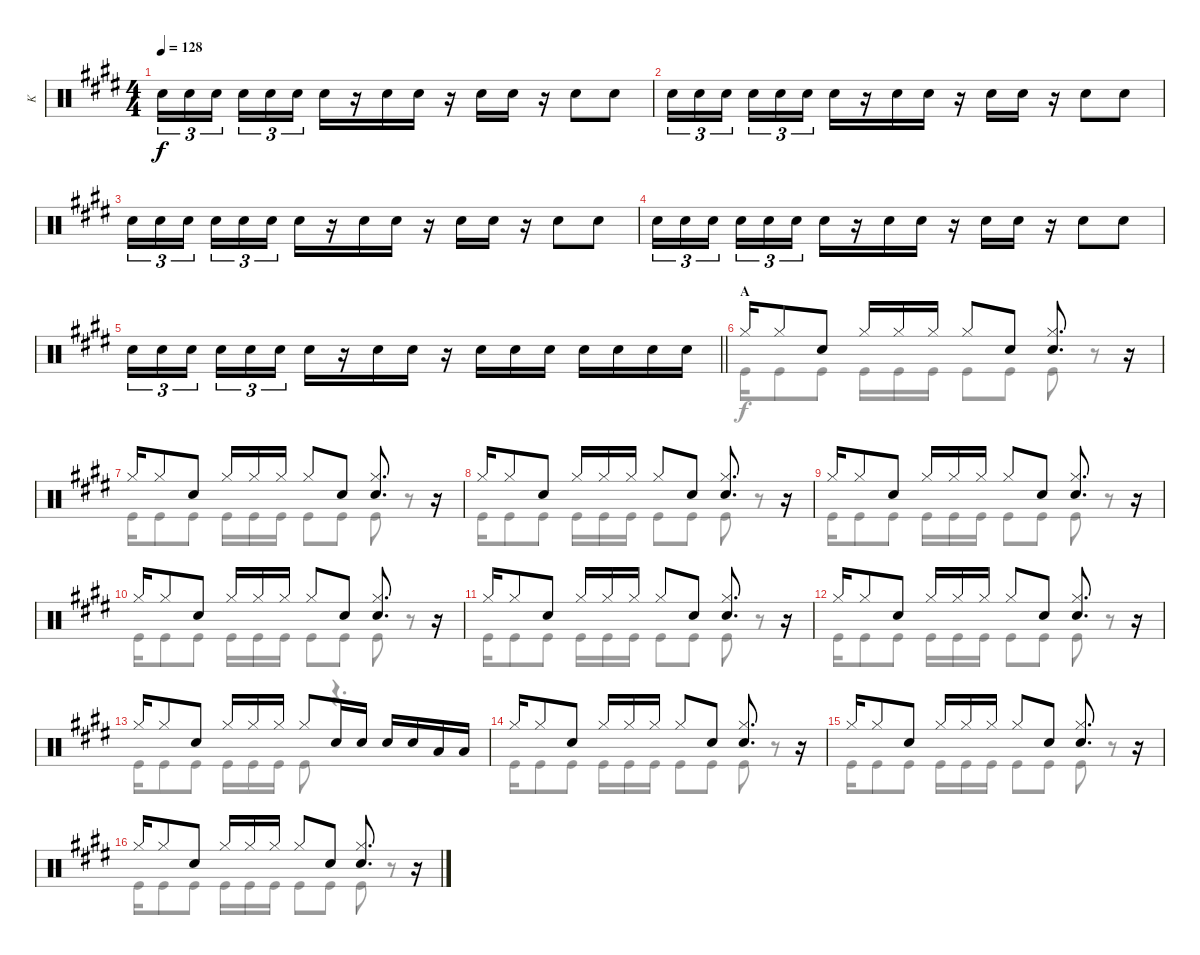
\track ("K" "K") {instrument percussion}
\staff {score}
\articulation defaults
\voice
\ts (4 4)
\tempo 128
\clef neutral
\ks e "Snare (hit) 2".16{tu (3 2) dy f} "Snare (hit) 2".16{tu (3 2)} "Snare (hit) 2".16{tu (3 2) beam splitsecondary} "Snare (hit) 2".16{tu (3 2)} "Snare (hit) 2".16{tu (3 2)} "Snare (hit) 2".16{tu (3 2)} "Snare (hit) 2".16
r.16 "Snare (hit) 2".16 "Snare (hit) 2".16 r.16 "Snare (hit) 2".16 "Snare (hit) 2".16 r.16 "Snare (hit) 2".8 "Snare (hit) 2".8 |
"Snare (hit) 2".16{tu (3 2)} "Snare (hit) 2".16{tu (3 2)} "Snare (hit) 2".16{tu (3 2) beam splitsecondary} "Snare (hit) 2".16{tu (3 2)} "Snare (hit) 2".16{tu (3 2)} "Snare (hit) 2".16{tu (3 2)} "Snare (hit) 2".16 r.16 "Snare (hit) 2".16 "Snare (hit) 2".16 r.16 "Snare (hit) 2".16 "Snare (hit) 2".16 r.16 "Snare (hit) 2".8 "Snare (hit) 2".8 |
"Snare (hit) 2".16{tu (3 2)} "Snare (hit) 2".16{tu (3 2)} "Snare (hit) 2".16{tu (3 2) beam splitsecondary} "Snare (hit) 2".16{tu (3 2)} "Snare (hit) 2".16{tu (3 2)} "Snare (hit) 2".16{tu (3 2)} "Snare (hit) 2".16 r.16 "Snare (hit) 2".16 "Snare (hit) 2".16 r.16 "Snare (hit) 2".16 "Snare (hit) 2".16 r.16 "Snare (hit) 2".8 "Snare (hit) 2".8 |
"Snare (hit) 2".16{tu (3 2)} "Snare (hit) 2".16{tu (3 2)} "Snare (hit) 2".16{tu (3 2) beam splitsecondary} "Snare (hit) 2".16{tu (3 2)} "Snare (hit) 2".16{tu (3 2)} "Snare (hit) 2".16{tu (3 2)} "Snare (hit) 2".16 r.16 "Snare (hit) 2".16 "Snare (hit) 2".16 r.16 "Snare (hit) 2".16 "Snare (hit) 2".16 r.16 "Snare (hit) 2".8 "Snare (hit) 2".8 |
\barLineRight lightlight "Snare (hit) 2".16{tu (3 2)} "Snare (hit) 2".16{tu (3 2)} "Snare (hit) 2".16{tu (3 2) beam splitsecondary} "Snare (hit) 2".16{tu (3 2)} "Snare (hit) 2".16{tu (3 2)} "Snare (hit) 2".16{tu (3 2)} "Snare (hit) 2".16
r.16 "Snare (hit) 2".16 "Snare (hit) 2".16 r.16 "Snare (hit) 2".16 "Snare (hit) 2".16 "Snare (hit) 2".16 "Snare (hit) 2".16 "Snare (hit) 2".16 "Snare (hit) 2".16 "Snare (hit) 2".16 |
\section ("" "A")
"Hi-Hat (closed)".16 "Hi-Hat (closed)".8 "Snare (hit) 2".8 "Hi-Hat (closed)".16 "Hi-Hat (closed)".16 "Hi-Hat (closed)".16 "Hi-Hat (closed)".8 "Snare (hit) 2".8 ("Hi-Hat (closed)" "Snare (hit) 2").8{d} r.16 |
"Hi-Hat (closed)".16 "Hi-Hat (closed)".8 "Snare (hit) 2".8 "Hi-Hat (closed)".16 "Hi-Hat (closed)".16 "Hi-Hat (closed)".16 "Hi-Hat (closed)".8 "Snare (hit) 2".8 ("Hi-Hat (closed)" "Snare (hit) 2").8{d} r.16 |
"Hi-Hat (closed)".16 "Hi-Hat (closed)".8 "Snare (hit) 2".8 "Hi-Hat (closed)".16 "Hi-Hat (closed)".16 "Hi-Hat (closed)".16 "Hi-Hat (closed)".8 "Snare (hit) 2".8 ("Hi-Hat (closed)" "Snare (hit) 2").8{d} r.16 |
"Hi-Hat (closed)".16 "Hi-Hat (closed)".8 "Snare (hit) 2".8 "Hi-Hat (closed)".16 "Hi-Hat (closed)".16 "Hi-Hat (closed)".16 "Hi-Hat (closed)".8 "Snare (hit) 2".8 ("Hi-Hat (closed)" "Snare (hit) 2").8{d} r.16 |
"Hi-Hat (closed)".16 "Hi-Hat (closed)".8 "Snare (hit) 2".8 "Hi-Hat (closed)".16 "Hi-Hat (closed)".16 "Hi-Hat (closed)".16 "Hi-Hat (closed)".8 "Snare (hit) 2".8 ("Hi-Hat (closed)" "Snare (hit) 2").8{d} r.16 |
"Hi-Hat (closed)".16 "Hi-Hat (closed)".8 "Snare (hit) 2".8 "Hi-Hat (closed)".16 "Hi-Hat (closed)".16 "Hi-Hat (closed)".16 "Hi-Hat (closed)".8 "Snare (hit) 2".8 ("Hi-Hat (closed)" "Snare (hit) 2").8{d} r.16 |
"Hi-Hat (closed)".16 "Hi-Hat (closed)".8 "Snare (hit) 2".8 "Hi-Hat (closed)".16 "Hi-Hat (closed)".16 "Hi-Hat (closed)".16 "Hi-Hat (closed)".8 "Snare (hit) 2".8 ("Hi-Hat (closed)" "Snare (hit) 2").8{d} r.16 |
"Hi-Hat (closed)".16 "Hi-Hat (closed)".8 "Snare (hit) 2".8 "Hi-Hat (closed)".16 "Hi-Hat (closed)".16 "Hi-Hat (closed)".16 "Hi-Hat (closed)".8 "Snare (hit) 2".16 "Snare (hit) 2".16 "Snare (hit) 2".16 "Snare (hit) 2".16 "Low Tom (hit)".16 "Low Tom (hit)".16 |
"Hi-Hat (closed)".16 "Hi-Hat (closed)".8 "Snare (hit) 2".8 "Hi-Hat (closed)".16 "Hi-Hat (closed)".16 "Hi-Hat (closed)".16 "Hi-Hat (closed)".8 "Snare (hit) 2".8 ("Hi-Hat (closed)" "Snare (hit) 2").8{d} r.16 |
"Hi-Hat (closed)".16 "Hi-Hat (closed)".8 "Snare (hit) 2".8 "Hi-Hat (closed)".16 "Hi-Hat (closed)".16 "Hi-Hat (closed)".16 "Hi-Hat (closed)".8 "Snare (hit) 2".8 ("Hi-Hat (closed)" "Snare (hit) 2").8{d} r.16 |
"Hi-Hat (closed)".16 "Hi-Hat (closed)".8 "Snare (hit) 2".8 "Hi-Hat (closed)".16 "Hi-Hat (closed)".16 "Hi-Hat (closed)".16 "Hi-Hat (closed)".8 "Snare (hit) 2".8 ("Hi-Hat (closed)" "Snare (hit) 2").8{d} r.16
\voice
\clef neutral
\ottava regular
\simile none
\ks e
|
|
|
|
\barLineRight lightlight
|
"Kick (hit)".16 "Kick (hit)".8 "Kick (hit)".8 "Kick (hit)".16 "Kick (hit)".16 "Kick (hit)".16 "Kick (hit)".8 "Kick (hit)".8 "Kick (hit)".8 r.8 |
"Kick (hit)".16 "Kick (hit)".8 "Kick (hit)".8 "Kick (hit)".16 "Kick (hit)".16 "Kick (hit)".16 "Kick (hit)".8 "Kick (hit)".8 "Kick (hit)".8 r.8 |
"Kick (hit)".16 "Kick (hit)".8 "Kick (hit)".8 "Kick (hit)".16 "Kick (hit)".16 "Kick (hit)".16 "Kick (hit)".8 "Kick (hit)".8 "Kick (hit)".8 r.8 |
"Kick (hit)".16 "Kick (hit)".8 "Kick (hit)".8 "Kick (hit)".16 "Kick (hit)".16 "Kick (hit)".16 "Kick (hit)".8 "Kick (hit)".8 "Kick (hit)".8 r.8 |
"Kick (hit)".16 "Kick (hit)".8 "Kick (hit)".8 "Kick (hit)".16 "Kick (hit)".16 "Kick (hit)".16 "Kick (hit)".8 "Kick (hit)".8 "Kick (hit)".8 r.8 |
"Kick (hit)".16 "Kick (hit)".8 "Kick (hit)".8 "Kick (hit)".16 "Kick (hit)".16 "Kick (hit)".16 "Kick (hit)".8 "Kick (hit)".8 "Kick (hit)".8 r.8 |
"Kick (hit)".16 "Kick (hit)".8 "Kick (hit)".8 "Kick (hit)".16 "Kick (hit)".16 "Kick (hit)".16 "Kick (hit)".8 "Kick (hit)".8 "Kick (hit)".8 r.8 |
"Kick (hit)".16 "Kick (hit)".8 "Kick (hit)".8 "Kick (hit)".16 "Kick (hit)".16 "Kick (hit)".16 "Kick (hit)".8 r.4{d} |
"Kick (hit)".16 "Kick (hit)".8 "Kick (hit)".8 "Kick (hit)".16 "Kick (hit)".16 "Kick (hit)".16 "Kick (hit)".8 "Kick (hit)".8 "Kick (hit)".8 r.8 |
"Kick (hit)".16 "Kick (hit)".8 "Kick (hit)".8 "Kick (hit)".16 "Kick (hit)".16 "Kick (hit)".16 "Kick (hit)".8 "Kick (hit)".8 "Kick (hit)".8 r.8 |
"Kick (hit)".16 "Kick (hit)".8 "Kick (hit)".8 "Kick (hit)".16 "Kick (hit)".16 "Kick (hit)".16 "Kick (hit)".8 "Kick (hit)".8 "Kick (hit)".8 r.8
